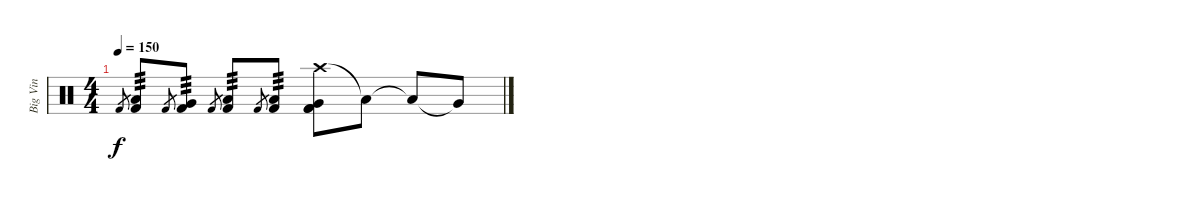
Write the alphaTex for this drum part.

\track ("Big Vin" "Big Vin") {instrument percussion}
\staff {score}
\articulation defaults
\ts (4 4)
\tempo 150
\clef neutral
\ks c "Kick (hit) 2".8{gr dy f}
("Low Tom (hit)" "Kick (hit) 2").8{tp 3} "Kick (hit) 2".8{gr} ("Very Low Tom (hit)" "Kick (hit) 2").8{tp 3} "Kick (hit) 2".8{gr} ("Low Floor Tom (hit)" "Kick (hit) 2").8{tp 3} "Kick (hit) 2".8{gr} ("Low Tom (hit)" "Kick (hit) 2").8{tp 3} ("Crash high (hit)" "Very Low Tom (hit)" "Kick (hit) 2" "Kick (hit) 2").8 "Low Floor Tom (hit)"{t}.8 "Low Tom (hit)"{t}.8 "Very Low Tom (hit)"{t}.8
